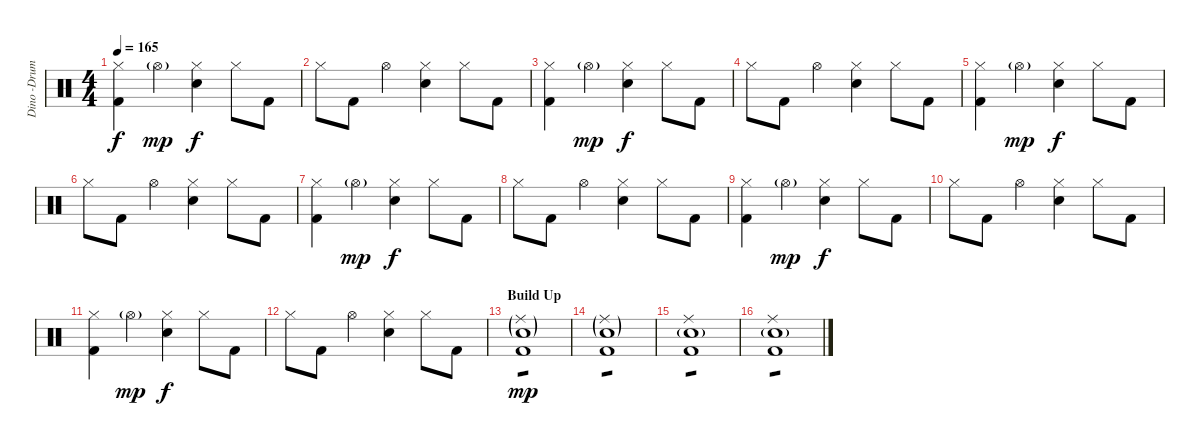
\track ("Dino -Drums" "Dino -Drum") {instrument percussion}
\staff {score}
\articulation defaults
\ts (4 4)
\tempo 165
\clef neutral
\ks c
("Hi-Hat (closed)" "Kick (hit) 2").4{dy f} "Hi-Hat (open)"{g}.4{dy mp} ("Hi-Hat (closed)" "Electric Snare (hit)").4{dy f} "Hi-Hat (closed)".8 "Kick (hit) 2".8 |
"Hi-Hat (closed)".8 "Kick (hit) 2".8 "Hi-Hat (open)".4 ("Hi-Hat (closed)" "Electric Snare (hit)").4 "Hi-Hat (closed)".8 "Kick (hit) 2".8 |
("Hi-Hat (closed)" "Kick (hit) 2").4 "Hi-Hat (open)"{g}.4{dy mp} ("Hi-Hat (closed)" "Electric Snare (hit)").4{dy f} "Hi-Hat (closed)".8 "Kick (hit) 2".8 |
"Hi-Hat (closed)".8 "Kick (hit) 2".8 "Hi-Hat (open)".4 ("Hi-Hat (closed)" "Electric Snare (hit)").4 "Hi-Hat (closed)".8 "Kick (hit) 2".8 |
("Hi-Hat (closed)" "Kick (hit) 2").4 "Hi-Hat (open)"{g}.4{dy mp} ("Hi-Hat (closed)" "Electric Snare (hit)").4{dy f} "Hi-Hat (closed)".8 "Kick (hit) 2".8 |
"Hi-Hat (closed)".8 "Kick (hit) 2".8 "Hi-Hat (open)".4 ("Hi-Hat (closed)" "Electric Snare (hit)").4 "Hi-Hat (closed)".8 "Kick (hit) 2".8 |
("Hi-Hat (closed)" "Kick (hit) 2").4 "Hi-Hat (open)"{g}.4{dy mp} ("Hi-Hat (closed)" "Electric Snare (hit)").4{dy f} "Hi-Hat (closed)".8 "Kick (hit) 2".8 |
"Hi-Hat (closed)".8 "Kick (hit) 2".8 "Hi-Hat (open)".4 ("Hi-Hat (closed)" "Electric Snare (hit)").4 "Hi-Hat (closed)".8 "Kick (hit) 2".8 |
("Hi-Hat (closed)" "Kick (hit) 2").4 "Hi-Hat (open)"{g}.4{dy mp} ("Hi-Hat (closed)" "Electric Snare (hit)").4{dy f} "Hi-Hat (closed)".8 "Kick (hit) 2".8 |
"Hi-Hat (closed)".8 "Kick (hit) 2".8 "Hi-Hat (open)".4 ("Hi-Hat (closed)" "Electric Snare (hit)").4 "Hi-Hat (closed)".8 "Kick (hit) 2".8 |
("Hi-Hat (closed)" "Kick (hit) 2").4 "Hi-Hat (open)"{g}.4{dy mp} ("Hi-Hat (closed)" "Electric Snare (hit)").4{dy f} "Hi-Hat (closed)".8 "Kick (hit) 2".8 |
"Hi-Hat (closed)".8 "Kick (hit) 2".8 "Hi-Hat (open)".4 ("Hi-Hat (closed)" "Electric Snare (hit)").4 "Hi-Hat (closed)".8 "Kick (hit) 2".8 |
\section ("" "Build Up")
("Ride (middle)"{g} "Electric Snare (hit)"{g} "Kick (hit) 2").1{tp 1 dy mp} |
("Ride (middle)"{g} "Electric Snare (hit)"{g} "Kick (hit) 2").1{tp 1} |
("Ride (middle)" "Electric Snare (hit)"{g} "Kick (hit) 2").1{tp 1} |
("Ride (middle)" "Electric Snare (hit)"{g} "Kick (hit) 2").1{tp 1}
